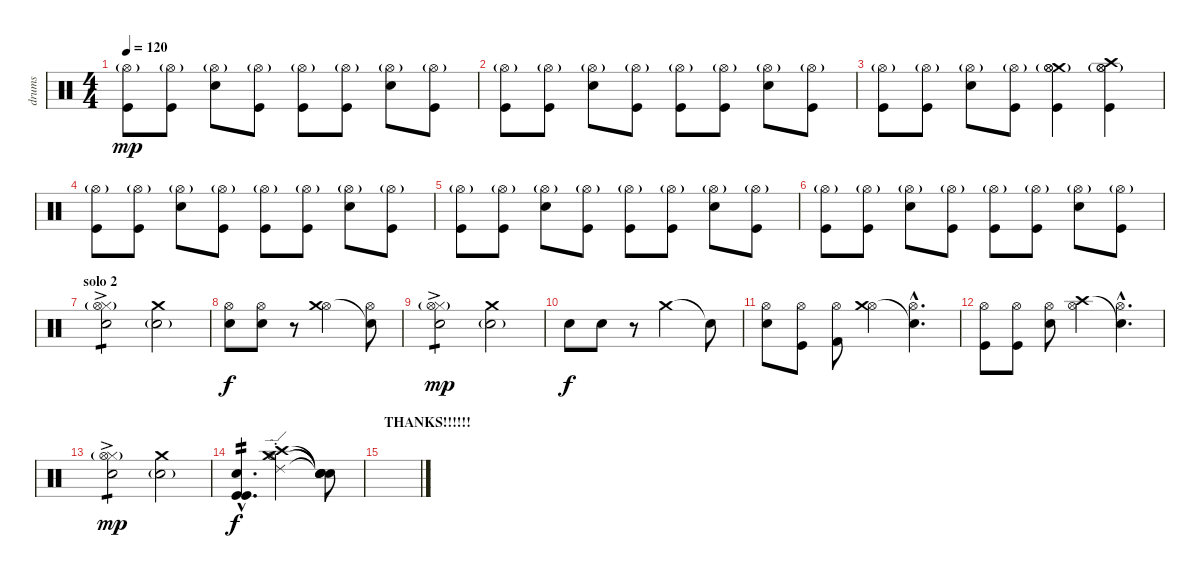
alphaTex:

\track ("drums" "drums") {instrument percussion}
\staff {score}
\articulation defaults
\ts (4 4)
\tempo 120
\clef neutral
\ks c
("Kick (hit)" "Hi-Hat (open)"{g}).8{dy mp} ("Kick (hit)" "Hi-Hat (open)"{g}).8 ("Electric Snare (hit)" "Hi-Hat (open)"{g}).8 ("Kick (hit)" "Hi-Hat (open)"{g}).8 ("Kick (hit)" "Hi-Hat (open)"{g}).8 ("Kick (hit)" "Hi-Hat (open)"{g}).8 ("Electric Snare (hit)" "Hi-Hat (open)"{g}).8 ("Kick (hit)" "Hi-Hat (open)"{g}).8 |
("Kick (hit)" "Hi-Hat (open)"{g}).8 ("Kick (hit)" "Hi-Hat (open)"{g}).8 ("Electric Snare (hit)" "Hi-Hat (open)"{g}).8 ("Kick (hit)" "Hi-Hat (open)"{g}).8 ("Kick (hit)" "Hi-Hat (open)"{g}).8 ("Kick (hit)" "Hi-Hat (open)"{g}).8 ("Electric Snare (hit)" "Hi-Hat (open)"{g}).8 ("Kick (hit)" "Hi-Hat (open)"{g}).8 |
("Kick (hit)" "Hi-Hat (open)"{g}).8 ("Kick (hit)" "Hi-Hat (open)"{g}).8 ("Electric Snare (hit)" "Hi-Hat (open)"{g}).8 ("Kick (hit)" "Hi-Hat (open)"{g}).8 ("Crash medium (hit)" "Hi-Hat (open)" "Kick (hit)" "Hi-Hat (open)"{g}).4 ("Crash high (hit)" "Hi-Hat (open)" "Kick (hit)" "Hi-Hat (open)"{g}).4 |
("Kick (hit)" "Hi-Hat (open)"{g}).8 ("Kick (hit)" "Hi-Hat (open)"{g}).8 ("Electric Snare (hit)" "Hi-Hat (open)"{g}).8 ("Kick (hit)" "Hi-Hat (open)"{g}).8 ("Kick (hit)" "Hi-Hat (open)"{g}).8 ("Kick (hit)" "Hi-Hat (open)"{g}).8 ("Electric Snare (hit)" "Hi-Hat (open)"{g}).8 ("Kick (hit)" "Hi-Hat (open)"{g}).8 |
("Kick (hit)" "Hi-Hat (open)"{g}).8 ("Kick (hit)" "Hi-Hat (open)"{g}).8 ("Electric Snare (hit)" "Hi-Hat (open)"{g}).8 ("Kick (hit)" "Hi-Hat (open)"{g}).8 ("Kick (hit)" "Hi-Hat (open)"{g}).8 ("Kick (hit)" "Hi-Hat (open)"{g}).8 ("Electric Snare (hit)" "Hi-Hat (open)"{g}).8 ("Kick (hit)" "Hi-Hat (open)"{g}).8 |
("Kick (hit)" "Hi-Hat (open)"{g}).8 ("Kick (hit)" "Hi-Hat (open)"{g}).8 ("Electric Snare (hit)" "Hi-Hat (open)"{g}).8 ("Kick (hit)" "Hi-Hat (open)"{g}).8 ("Kick (hit)" "Hi-Hat (open)"{g}).8 ("Kick (hit)" "Hi-Hat (open)"{g}).8 ("Electric Snare (hit)" "Hi-Hat (open)"{g}).8 ("Kick (hit)" "Hi-Hat (open)"{g}).8 |
\section ("" "solo 2")
("Hi-Hat (closed)"{g} "Electric Snare (hit)"{ac} "Hi-Hat (open)"{g}).2{tp 1} ("Snare (hit) 2"{g} "Crash medium (hit)").2 |
("Hi-Hat (open)" "Snare (hit) 2").8{dy f} ("Hi-Hat (open)" "Snare (hit) 2").8 r.8 ("Hi-Hat (open)" "Crash medium (hit)").2 ("Hi-Hat (open)" "Snare (hit)"{t}).8 |
("Hi-Hat (closed)"{g} "Electric Snare (hit)"{ac} "Hi-Hat (open)"{g}).2{tp 1 dy mp} ("Snare (hit) 2"{g} "Crash medium (hit)").2 |
"Snare (hit) 2".8{dy f} "Snare (hit) 2".8 r.8 "Crash medium (hit)".2 "Snare (hit)"{t}.8 |
("Hi-Hat (open)" "Snare (hit) 2").8 ("Hi-Hat (open)" "Kick (hit)").8 ("Hi-Hat (open)" "Kick (hit) 2").8 ("Hi-Hat (open)" "Crash medium (hit)").4 ("Hi-Hat (open)"{hac} "Snare (hit)"{hac t}).4{d} |
("Hi-Hat (open)" "Kick (hit)").8 ("Hi-Hat (open)" "Kick (hit)").8 ("Hi-Hat (open)" "Snare (hit) 2").8 ("Hi-Hat (open)" "Crash high (hit)").4 ("Hi-Hat (open)"{hac} "Snare (hit)"{hac t}).4{d} |
("Hi-Hat (closed)"{g} "Electric Snare (hit)"{ac} "Hi-Hat (open)"{g}).2{tp 1 dy mp} ("Snare (hit) 2"{g} "Crash medium (hit)").2 |
("Kick (hit)"{hac} "Kick (hit)"{hac st} "Snare (hit) 2"{hac st}).4{d tp 2 dy f} ("Ride (edge) 2"{st} "Crash high (hit)"{st} "Crash medium (hit)"{st} "Hi-Hat (open)"{st}).2 ("Snare (hit)"{t} "Snare (hit)"{t} "Snare (hit)"{t} "Snare (hit)"{t}).8 |
\section ("" "THANKS!!!!!!")
